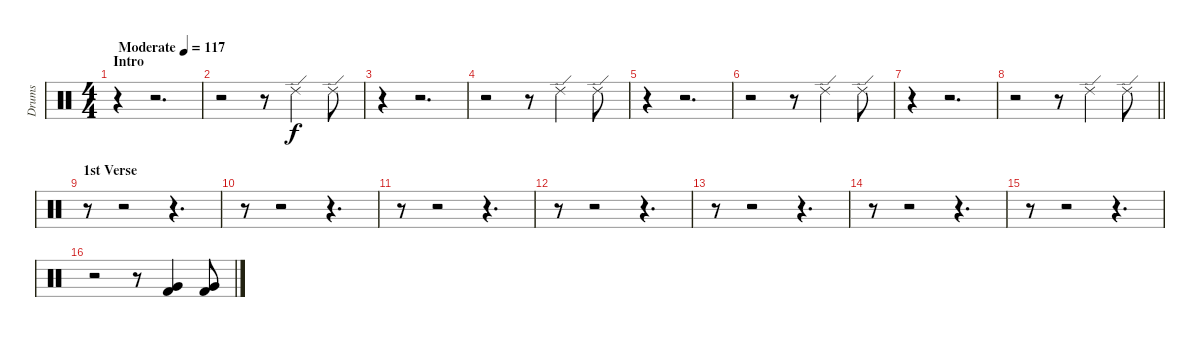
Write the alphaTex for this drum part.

\track ("Drums" "Drums") {instrument percussion}
\staff {score}
\articulation defaults
\ts (4 4)
\section ("" "Intro")
\tempo (117 "Moderate")
\clef neutral
\ks c
r.4{dy f} r.2{d} |
r.2 r.8 "Ride (edge) 2".4 "Ride (edge) 2".8 |
r.4 r.2{d} |
r.2 r.8 "Ride (edge) 2".4 "Ride (edge) 2".8 |
r.4 r.2{d} |
r.2 r.8 "Ride (edge) 2".4 "Ride (edge) 2".8 |
r.4 r.2{d} |
\barLineRight lightlight
r.2 r.8 "Ride (edge) 2".4 "Ride (edge) 2".8 |
\section ("" "1st Verse")
r.8 r.2 r.4{d} |
r.8 r.2 r.4{d} |
r.8 r.2 r.4{d} |
r.8 r.2 r.4{d} |
r.8 r.2 r.4{d} |
r.8 r.2 r.4{d} |
r.8 r.2 r.4{d} |
r.2 r.8 ("Very Low Tom (hit)" "Kick (hit) 2").4 ("Very Low Tom (hit)" "Kick (hit) 2").8
